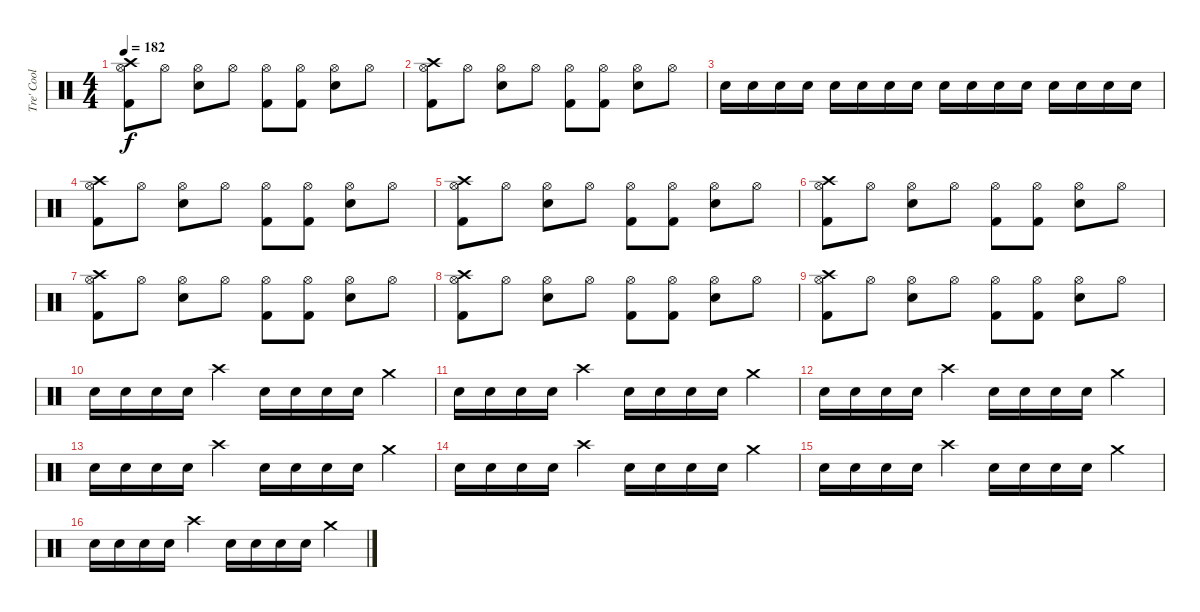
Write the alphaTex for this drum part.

\track ("Tre' Cool (DRUMS)!!!!!!!!!" "Tre' Cool ") {instrument percussion}
\staff {score}
\articulation defaults
\ts (4 4)
\tempo 182
\clef neutral
\ks c
("Crash high (hit)" "Hi-Hat (open)" "Kick (hit) 2").8{dy f} "Hi-Hat (open)".8 ("Hi-Hat (open)" "Snare (hit) 2").8 "Hi-Hat (open)".8 ("Hi-Hat (open)" "Kick (hit) 2").8 ("Hi-Hat (open)" "Kick (hit) 2").8 ("Hi-Hat (open)" "Snare (hit) 2").8 "Hi-Hat (open)".8 |
("Crash high (hit)" "Hi-Hat (open)" "Kick (hit) 2").8 "Hi-Hat (open)".8 ("Hi-Hat (open)" "Snare (hit) 2").8 "Hi-Hat (open)".8 ("Hi-Hat (open)" "Kick (hit) 2").8 ("Hi-Hat (open)" "Kick (hit) 2").8 ("Hi-Hat (open)" "Snare (hit) 2").8 "Hi-Hat (open)".8 |
"Snare (hit) 2".16 "Snare (hit) 2".16 "Snare (hit) 2".16 "Snare (hit) 2".16 "Snare (hit) 2".16 "Snare (hit) 2".16 "Snare (hit) 2".16 "Snare (hit) 2".16 "Snare (hit) 2".16 "Snare (hit) 2".16 "Snare (hit) 2".16 "Snare (hit) 2".16 "Snare (hit) 2".16 "Snare (hit) 2".16 "Snare (hit) 2".16 "Snare (hit) 2".16 |
("Crash high (hit)" "Hi-Hat (open)" "Kick (hit) 2").8 "Hi-Hat (open)".8 ("Hi-Hat (open)" "Snare (hit) 2").8 "Hi-Hat (open)".8 ("Hi-Hat (open)" "Kick (hit) 2").8 ("Hi-Hat (open)" "Kick (hit) 2").8 ("Hi-Hat (open)" "Snare (hit) 2").8 "Hi-Hat (open)".8 |
("Crash high (hit)" "Hi-Hat (open)" "Kick (hit) 2").8 "Hi-Hat (open)".8 ("Hi-Hat (open)" "Snare (hit) 2").8 "Hi-Hat (open)".8 ("Hi-Hat (open)" "Kick (hit) 2").8 ("Hi-Hat (open)" "Kick (hit) 2").8 ("Hi-Hat (open)" "Snare (hit) 2").8 "Hi-Hat (open)".8 |
("Crash high (hit)" "Hi-Hat (open)" "Kick (hit) 2").8 "Hi-Hat (open)".8 ("Hi-Hat (open)" "Snare (hit) 2").8 "Hi-Hat (open)".8 ("Hi-Hat (open)" "Kick (hit) 2").8 ("Hi-Hat (open)" "Kick (hit) 2").8 ("Hi-Hat (open)" "Snare (hit) 2").8 "Hi-Hat (open)".8 |
("Crash high (hit)" "Hi-Hat (open)" "Kick (hit) 2").8 "Hi-Hat (open)".8 ("Hi-Hat (open)" "Snare (hit) 2").8 "Hi-Hat (open)".8 ("Hi-Hat (open)" "Kick (hit) 2").8 ("Hi-Hat (open)" "Kick (hit) 2").8 ("Hi-Hat (open)" "Snare (hit) 2").8 "Hi-Hat (open)".8 |
("Crash high (hit)" "Hi-Hat (open)" "Kick (hit) 2").8 "Hi-Hat (open)".8 ("Hi-Hat (open)" "Snare (hit) 2").8 "Hi-Hat (open)".8 ("Hi-Hat (open)" "Kick (hit) 2").8 ("Hi-Hat (open)" "Kick (hit) 2").8 ("Hi-Hat (open)" "Snare (hit) 2").8 "Hi-Hat (open)".8 |
("Crash high (hit)" "Hi-Hat (open)" "Kick (hit) 2").8 "Hi-Hat (open)".8 ("Hi-Hat (open)" "Snare (hit) 2").8 "Hi-Hat (open)".8 ("Hi-Hat (open)" "Kick (hit) 2").8 ("Hi-Hat (open)" "Kick (hit) 2").8 ("Hi-Hat (open)" "Snare (hit) 2").8 "Hi-Hat (open)".8 |
"Snare (hit) 2".16 "Snare (hit) 2".16 "Snare (hit) 2".16 "Snare (hit) 2".16 "Crash high (hit)".4 "Snare (hit) 2".16 "Snare (hit) 2".16 "Snare (hit) 2".16 "Snare (hit) 2".16 "Crash medium (hit)".4 |
"Snare (hit) 2".16 "Snare (hit) 2".16 "Snare (hit) 2".16 "Snare (hit) 2".16 "Crash high (hit)".4 "Snare (hit) 2".16 "Snare (hit) 2".16 "Snare (hit) 2".16 "Snare (hit) 2".16 "Crash medium (hit)".4 |
"Snare (hit) 2".16 "Snare (hit) 2".16 "Snare (hit) 2".16 "Snare (hit) 2".16 "Crash high (hit)".4 "Snare (hit) 2".16 "Snare (hit) 2".16 "Snare (hit) 2".16 "Snare (hit) 2".16 "Crash medium (hit)".4 |
"Snare (hit) 2".16 "Snare (hit) 2".16 "Snare (hit) 2".16 "Snare (hit) 2".16 "Crash high (hit)".4 "Snare (hit) 2".16 "Snare (hit) 2".16 "Snare (hit) 2".16 "Snare (hit) 2".16 "Crash medium (hit)".4 |
"Snare (hit) 2".16 "Snare (hit) 2".16 "Snare (hit) 2".16 "Snare (hit) 2".16 "Crash high (hit)".4 "Snare (hit) 2".16 "Snare (hit) 2".16 "Snare (hit) 2".16 "Snare (hit) 2".16 "Crash medium (hit)".4 |
"Snare (hit) 2".16 "Snare (hit) 2".16 "Snare (hit) 2".16 "Snare (hit) 2".16 "Crash high (hit)".4 "Snare (hit) 2".16 "Snare (hit) 2".16 "Snare (hit) 2".16 "Snare (hit) 2".16 "Crash medium (hit)".4 |
"Snare (hit) 2".16 "Snare (hit) 2".16 "Snare (hit) 2".16 "Snare (hit) 2".16 "Crash high (hit)".4 "Snare (hit) 2".16 "Snare (hit) 2".16 "Snare (hit) 2".16 "Snare (hit) 2".16 "Crash medium (hit)".4
